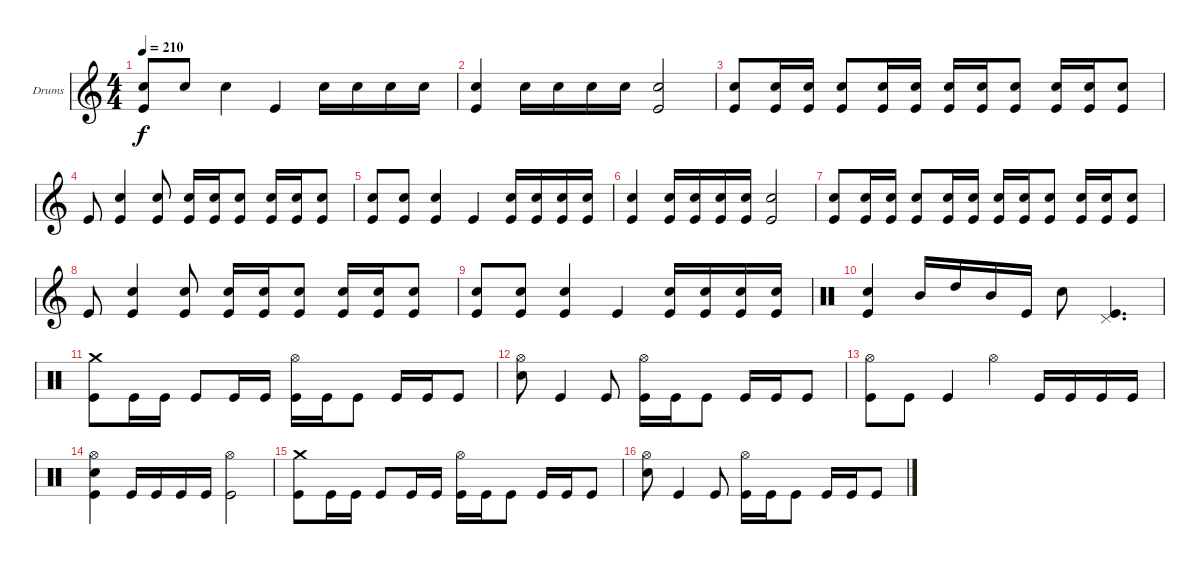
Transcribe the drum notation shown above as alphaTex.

\bracketExtendMode groupsimilarinstruments
\firstSystemTrackNameOrientation horizontal
\otherSystemsTrackNameOrientation horizontal
\track ("Drumkit" "Drums") {instrument percussion}
\staff {score}
\articulation defaults
\ts (4 4)
\tempo 210
\clef g2
\ks c
("Snare (hit) 2" "Kick (hit)").8{dy f} "Snare (hit) 2".8 "Snare (hit) 2".4 "Kick (hit)".4 "Snare (hit) 2".16 "Snare (hit) 2".16 "Snare (hit) 2".16 "Snare (hit) 2".16 |
("Snare (hit) 2" "Kick (hit)").4 "Snare (hit) 2".16 "Snare (hit) 2".16 "Snare (hit) 2".16 "Snare (hit) 2".16 ("Snare (hit) 2" "Kick (hit)").2 |
("Snare (hit) 2" "Kick (hit)").8 ("Snare (hit) 2" "Kick (hit)").16 ("Snare (hit) 2" "Kick (hit)").16 ("Snare (hit) 2" "Kick (hit)").8 ("Snare (hit) 2" "Kick (hit)").16 ("Snare (hit) 2" "Kick (hit)").16 ("Snare (hit) 2" "Kick (hit)").16 ("Snare (hit) 2" "Kick (hit)").16 ("Snare (hit) 2" "Kick (hit)").8 ("Snare (hit) 2" "Kick (hit)").16 ("Snare (hit) 2" "Kick (hit)").16 ("Snare (hit) 2" "Kick (hit)").8 |
"Kick (hit)".8 ("Snare (hit) 2" "Kick (hit)").4 ("Snare (hit) 2" "Kick (hit)").8 ("Snare (hit) 2" "Kick (hit)").16 ("Snare (hit) 2" "Kick (hit)").16 ("Snare (hit) 2" "Kick (hit)").8 ("Snare (hit) 2" "Kick (hit)").16 ("Snare (hit) 2" "Kick (hit)").16 ("Snare (hit) 2" "Kick (hit)").8 |
("Snare (hit) 2" "Kick (hit)").8 ("Snare (hit) 2" "Kick (hit)").8 ("Snare (hit) 2" "Kick (hit)").4 "Kick (hit)".4 ("Snare (hit) 2" "Kick (hit)").16 ("Snare (hit) 2" "Kick (hit)").16 ("Snare (hit) 2" "Kick (hit)").16 ("Snare (hit) 2" "Kick (hit)").16 |
("Snare (hit) 2" "Kick (hit)").4 ("Snare (hit) 2" "Kick (hit)").16 ("Snare (hit) 2" "Kick (hit)").16 ("Snare (hit) 2" "Kick (hit)").16 ("Snare (hit) 2" "Kick (hit)").16 ("Snare (hit) 2" "Kick (hit)").2 |
("Snare (hit) 2" "Kick (hit)").8 ("Snare (hit) 2" "Kick (hit)").16 ("Snare (hit) 2" "Kick (hit)").16 ("Snare (hit) 2" "Kick (hit)").8 ("Snare (hit) 2" "Kick (hit)").16 ("Snare (hit) 2" "Kick (hit)").16 ("Snare (hit) 2" "Kick (hit)").16 ("Snare (hit) 2" "Kick (hit)").16 ("Snare (hit) 2" "Kick (hit)").8 ("Snare (hit) 2" "Kick (hit)").16 ("Snare (hit) 2" "Kick (hit)").16 ("Snare (hit) 2" "Kick (hit)").8 |
"Kick (hit)".8 ("Snare (hit) 2" "Kick (hit)").4 ("Snare (hit) 2" "Kick (hit)").8 ("Snare (hit) 2" "Kick (hit)").16 ("Snare (hit) 2" "Kick (hit)").16 ("Snare (hit) 2" "Kick (hit)").8 ("Snare (hit) 2" "Kick (hit)").16 ("Snare (hit) 2" "Kick (hit)").16 ("Snare (hit) 2" "Kick (hit)").8 |
("Snare (hit) 2" "Kick (hit)").8 ("Snare (hit) 2" "Kick (hit)").8 ("Snare (hit) 2" "Kick (hit)").4 "Kick (hit)".4 ("Snare (hit) 2" "Kick (hit)").16 ("Snare (hit) 2" "Kick (hit)").16 ("Snare (hit) 2" "Kick (hit)").16 ("Snare (hit) 2" "Kick (hit)").16 |
\clef neutral
("Snare (hit) 2" "Kick (hit)").4 "Mid Tom (hit)".16 "High Tom (hit)".16 "Mid Tom (hit)".16 "Kick (hit)".16 "Snare (hit) 2".8 ("Pedal Hi-Hat (hit)" "Kick (hit)").4{d} |
("Kick (hit)" "Crash medium (hit)").8 "Kick (hit)".16 "Kick (hit)".16 "Kick (hit)".8 "Kick (hit)".16 "Kick (hit)".16 ("Kick (hit)" "Hi-Hat (open)").16 "Kick (hit)".16 "Kick (hit)".8 "Kick (hit)".16 "Kick (hit)".16 "Kick (hit)".8 |
("Hi-Hat (open)" "Snare (hit) 2").8 "Kick (hit)".4 "Kick (hit)".8 ("Hi-Hat (open)" "Kick (hit)").16 "Kick (hit)".16 "Kick (hit)".8 "Kick (hit)".16 "Kick (hit)".16 "Kick (hit)".8 |
("Hi-Hat (open)" "Kick (hit)").8 "Kick (hit)".8 "Kick (hit)".4 "Hi-Hat (open)".4 "Kick (hit)".16 "Kick (hit)".16 "Kick (hit)".16 "Kick (hit)".16 |
("Hi-Hat (open)" "Snare (hit) 2" "Kick (hit)").4 "Kick (hit)".16 "Kick (hit)".16 "Kick (hit)".16 "Kick (hit)".16 ("Hi-Hat (open)" "Kick (hit)").2 |
("Kick (hit)" "Crash medium (hit)").8 "Kick (hit)".16 "Kick (hit)".16 "Kick (hit)".8 "Kick (hit)".16 "Kick (hit)".16 ("Kick (hit)" "Hi-Hat (open)").16 "Kick (hit)".16 "Kick (hit)".8 "Kick (hit)".16 "Kick (hit)".16 "Kick (hit)".8 |
("Hi-Hat (open)" "Snare (hit) 2").8 "Kick (hit)".4 "Kick (hit)".8 ("Hi-Hat (open)" "Kick (hit)").16 "Kick (hit)".16 "Kick (hit)".8 "Kick (hit)".16 "Kick (hit)".16 "Kick (hit)".8
